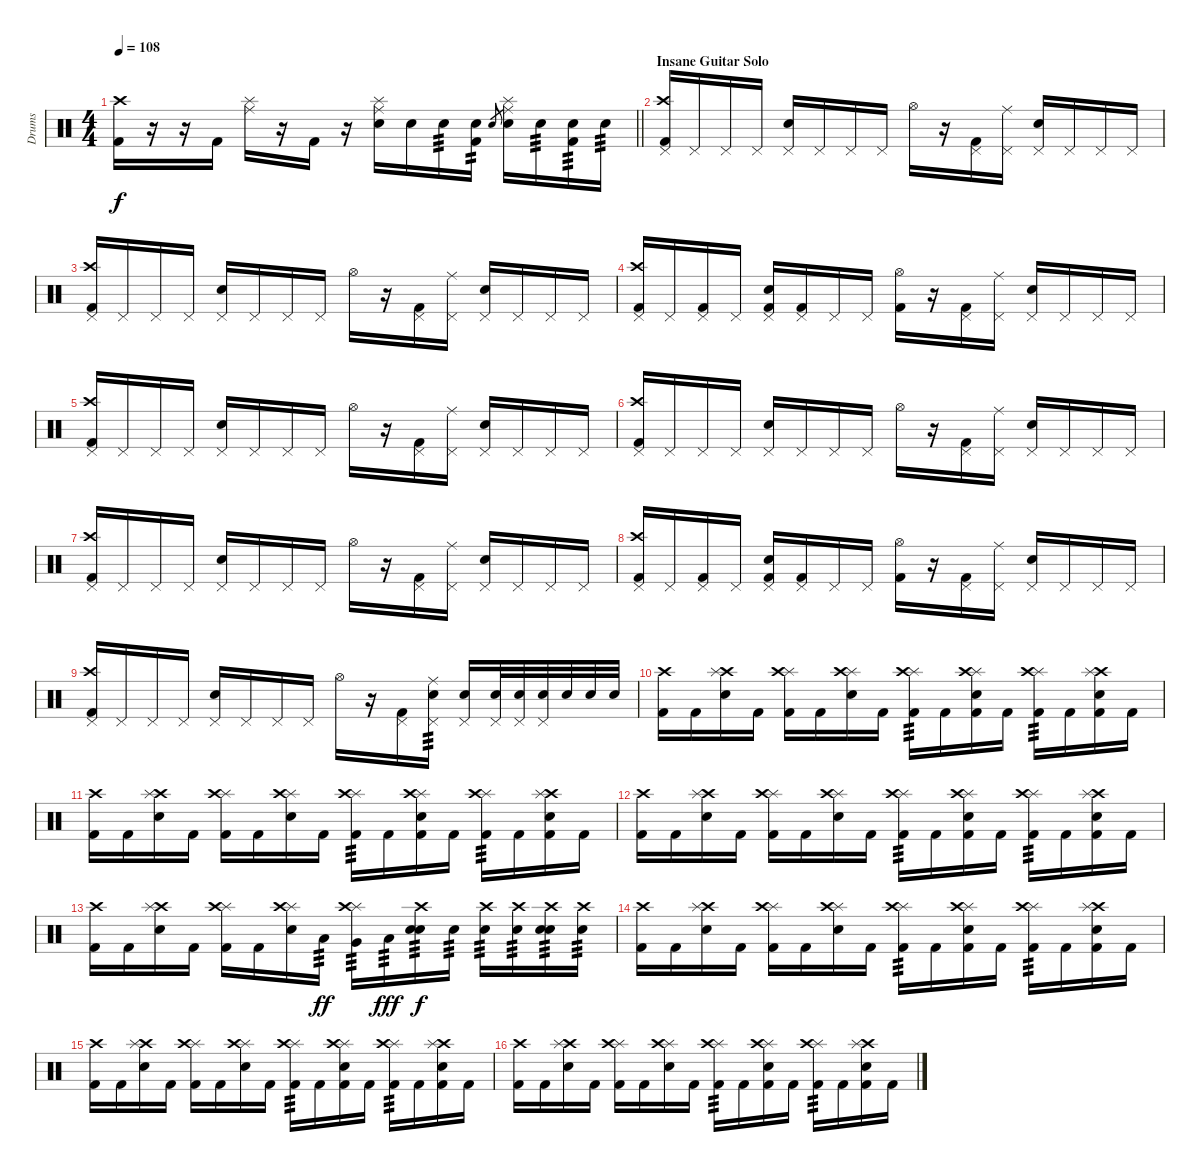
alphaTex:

\track ("Drums" "Drums") {instrument percussion}
\staff {score}
\articulation defaults
\ts (4 4)
\tempo 108
\clef neutral
\barLineRight lightlight
\ks c
("Kick (hit) 2" "Crash high (hit)").16{dy f} r.16 r.16 "Kick (hit) 2".16 ("Splash (hit)" "Ride (middle)").16 r.16 "Kick (hit) 2".16 r.16 ("Electric Snare (hit)" "Splash (hit)" "Ride (middle)").16 "Electric Snare (hit)".16 "Electric Snare (hit)".16{tp 3} ("Electric Snare (hit)" "Kick (hit) 2").16{tp 2} "Electric Snare (hit)".8{gr} ("Electric Snare (hit)" "Splash (hit)" "Ride (middle)").16 "Electric Snare (hit)".16{tp 3} ("Electric Snare (hit)" "Kick (hit) 2").16{tp 3} "Electric Snare (hit)".16{tp 3} |
\section ("" "Insane Guitar Solo")
("Pedal Hi-Hat (hit)" "Crash high (hit)" "Kick (hit) 2").16 "Pedal Hi-Hat (hit)".16 "Pedal Hi-Hat (hit)".16 "Pedal Hi-Hat (hit)".16 ("Pedal Hi-Hat (hit)" "Electric Snare (hit)").16 "Pedal Hi-Hat (hit)".16 "Pedal Hi-Hat (hit)".16 "Pedal Hi-Hat (hit)".16 "Hi-Hat (open)".16 r.16 ("Pedal Hi-Hat (hit)" "Kick (hit) 2").16 ("Ride (middle)" "Pedal Hi-Hat (hit)").16 ("Pedal Hi-Hat (hit)" "Electric Snare (hit)").16 "Pedal Hi-Hat (hit)".16 "Pedal Hi-Hat (hit)".16 "Pedal Hi-Hat (hit)".16 |
("Pedal Hi-Hat (hit)" "Crash high (hit)" "Kick (hit) 2").16 "Pedal Hi-Hat (hit)".16 "Pedal Hi-Hat (hit)".16 "Pedal Hi-Hat (hit)".16 ("Pedal Hi-Hat (hit)" "Electric Snare (hit)").16 "Pedal Hi-Hat (hit)".16 "Pedal Hi-Hat (hit)".16 "Pedal Hi-Hat (hit)".16 "Hi-Hat (open)".16 r.16 ("Pedal Hi-Hat (hit)" "Kick (hit) 2").16 ("Ride (middle)" "Pedal Hi-Hat (hit)").16 ("Pedal Hi-Hat (hit)" "Electric Snare (hit)").16 "Pedal Hi-Hat (hit)".16 "Pedal Hi-Hat (hit)".16 "Pedal Hi-Hat (hit)".16 |
("Pedal Hi-Hat (hit)" "Crash high (hit)" "Kick (hit) 2").16 "Pedal Hi-Hat (hit)".16 ("Pedal Hi-Hat (hit)" "Kick (hit) 2").16 "Pedal Hi-Hat (hit)".16 ("Pedal Hi-Hat (hit)" "Kick (hit) 2" "Electric Snare (hit)").16 ("Pedal Hi-Hat (hit)" "Kick (hit) 2").16 "Pedal Hi-Hat (hit)".16 "Pedal Hi-Hat (hit)".16 ("Hi-Hat (open)" "Kick (hit) 2").16 r.16 ("Pedal Hi-Hat (hit)" "Kick (hit) 2").16 ("Ride (middle)" "Pedal Hi-Hat (hit)").16 ("Pedal Hi-Hat (hit)" "Electric Snare (hit)").16 "Pedal Hi-Hat (hit)".16 "Pedal Hi-Hat (hit)".16 "Pedal Hi-Hat (hit)".16 |
("Pedal Hi-Hat (hit)" "Crash high (hit)" "Kick (hit) 2").16 "Pedal Hi-Hat (hit)".16 "Pedal Hi-Hat (hit)".16 "Pedal Hi-Hat (hit)".16 ("Pedal Hi-Hat (hit)" "Electric Snare (hit)").16 "Pedal Hi-Hat (hit)".16 "Pedal Hi-Hat (hit)".16 "Pedal Hi-Hat (hit)".16 "Hi-Hat (open)".16 r.16 ("Pedal Hi-Hat (hit)" "Kick (hit) 2").16 ("Ride (middle)" "Pedal Hi-Hat (hit)").16 ("Pedal Hi-Hat (hit)" "Electric Snare (hit)").16 "Pedal Hi-Hat (hit)".16 "Pedal Hi-Hat (hit)".16 "Pedal Hi-Hat (hit)".16 |
("Pedal Hi-Hat (hit)" "Crash high (hit)" "Kick (hit) 2").16 "Pedal Hi-Hat (hit)".16 "Pedal Hi-Hat (hit)".16 "Pedal Hi-Hat (hit)".16 ("Pedal Hi-Hat (hit)" "Electric Snare (hit)").16 "Pedal Hi-Hat (hit)".16 "Pedal Hi-Hat (hit)".16 "Pedal Hi-Hat (hit)".16 "Hi-Hat (open)".16 r.16 ("Pedal Hi-Hat (hit)" "Kick (hit) 2").16 ("Ride (middle)" "Pedal Hi-Hat (hit)").16 ("Pedal Hi-Hat (hit)" "Electric Snare (hit)").16 "Pedal Hi-Hat (hit)".16 "Pedal Hi-Hat (hit)".16 "Pedal Hi-Hat (hit)".16 |
("Pedal Hi-Hat (hit)" "Crash high (hit)" "Kick (hit) 2").16 "Pedal Hi-Hat (hit)".16 "Pedal Hi-Hat (hit)".16 "Pedal Hi-Hat (hit)".16 ("Pedal Hi-Hat (hit)" "Electric Snare (hit)").16 "Pedal Hi-Hat (hit)".16 "Pedal Hi-Hat (hit)".16 "Pedal Hi-Hat (hit)".16 "Hi-Hat (open)".16 r.16 ("Pedal Hi-Hat (hit)" "Kick (hit) 2").16 ("Ride (middle)" "Pedal Hi-Hat (hit)").16 ("Pedal Hi-Hat (hit)" "Electric Snare (hit)").16 "Pedal Hi-Hat (hit)".16 "Pedal Hi-Hat (hit)".16 "Pedal Hi-Hat (hit)".16 |
("Pedal Hi-Hat (hit)" "Crash high (hit)" "Kick (hit) 2").16 "Pedal Hi-Hat (hit)".16 ("Pedal Hi-Hat (hit)" "Kick (hit) 2").16 "Pedal Hi-Hat (hit)".16 ("Pedal Hi-Hat (hit)" "Kick (hit) 2" "Electric Snare (hit)").16 ("Pedal Hi-Hat (hit)" "Kick (hit) 2").16 "Pedal Hi-Hat (hit)".16 "Pedal Hi-Hat (hit)".16 ("Hi-Hat (open)" "Kick (hit) 2").16 r.16 ("Pedal Hi-Hat (hit)" "Kick (hit) 2").16 ("Ride (middle)" "Pedal Hi-Hat (hit)").16 ("Pedal Hi-Hat (hit)" "Electric Snare (hit)").16 "Pedal Hi-Hat (hit)".16 "Pedal Hi-Hat (hit)".16 "Pedal Hi-Hat (hit)".16 |
("Pedal Hi-Hat (hit)" "Crash high (hit)" "Kick (hit) 2").16 "Pedal Hi-Hat (hit)".16 "Pedal Hi-Hat (hit)".16 "Pedal Hi-Hat (hit)".16 ("Pedal Hi-Hat (hit)" "Electric Snare (hit)").16 "Pedal Hi-Hat (hit)".16 "Pedal Hi-Hat (hit)".16 "Pedal Hi-Hat (hit)".16 "Hi-Hat (open)".16 r.16 ("Pedal Hi-Hat (hit)" "Kick (hit) 2").16 ("Ride (middle)" "Pedal Hi-Hat (hit)" "Electric Snare (hit)").16{tp 3} ("Pedal Hi-Hat (hit)" "Electric Snare (hit)").16 ("Pedal Hi-Hat (hit)" "Electric Snare (hit)").32 ("Pedal Hi-Hat (hit)" "Electric Snare (hit)").32 ("Pedal Hi-Hat (hit)" "Electric Snare (hit)").32 "Electric Snare (hit)".32 "Electric Snare (hit)".32 "Electric Snare (hit)".32 |
("Crash high (hit)" "Kick (hit) 2").16 "Kick (hit) 2".16 ("Crash high (hit)" "Splash (hit)" "Electric Snare (hit)").16 "Kick (hit) 2".16 ("Splash (hit)" "Crash high (hit)" "Kick (hit) 2").16 "Kick (hit) 2".16 ("Splash (hit)" "Crash high (hit)" "Electric Snare (hit)").16 "Kick (hit) 2".16 ("Splash (hit)" "Crash high (hit)" "Kick (hit) 2").16{tp 3} "Kick (hit) 2".16 ("Splash (hit)" "Crash high (hit)" "Electric Snare (hit)" "Kick (hit) 2").16 "Kick (hit) 2".16 ("Splash (hit)" "Crash high (hit)" "Kick (hit) 2").16{tp 3} "Kick (hit) 2".16 ("Crash high (hit)" "Splash (hit)" "Electric Snare (hit)" "Kick (hit) 2").16 "Kick (hit) 2".16 |
("Crash high (hit)" "Kick (hit) 2").16 "Kick (hit) 2".16 ("Crash high (hit)" "Splash (hit)" "Electric Snare (hit)").16 "Kick (hit) 2".16 ("Splash (hit)" "Crash high (hit)" "Kick (hit) 2").16 "Kick (hit) 2".16 ("Splash (hit)" "Crash high (hit)" "Electric Snare (hit)").16 "Kick (hit) 2".16 ("Splash (hit)" "Crash high (hit)" "Kick (hit) 2").16{tp 3} "Kick (hit) 2".16 ("Splash (hit)" "Crash high (hit)" "Electric Snare (hit)" "Kick (hit) 2").16 "Kick (hit) 2".16 ("Splash (hit)" "Crash high (hit)" "Kick (hit) 2").16{tp 3} "Kick (hit) 2".16 ("Crash high (hit)" "Splash (hit)" "Electric Snare (hit)" "Kick (hit) 2").16 "Kick (hit) 2".16 |
("Crash high (hit)" "Kick (hit) 2").16 "Kick (hit) 2".16 ("Crash high (hit)" "Splash (hit)" "Electric Snare (hit)").16 "Kick (hit) 2".16 ("Splash (hit)" "Crash high (hit)" "Kick (hit) 2").16 "Kick (hit) 2".16 ("Splash (hit)" "Crash high (hit)" "Electric Snare (hit)").16 "Kick (hit) 2".16 ("Splash (hit)" "Crash high (hit)" "Kick (hit) 2").16{tp 3} "Kick (hit) 2".16 ("Splash (hit)" "Crash high (hit)" "Electric Snare (hit)" "Kick (hit) 2").16 "Kick (hit) 2".16 ("Splash (hit)" "Crash high (hit)" "Kick (hit) 2").16{tp 3} "Kick (hit) 2".16 ("Crash high (hit)" "Splash (hit)" "Electric Snare (hit)" "Kick (hit) 2").16 "Kick (hit) 2".16 |
("Crash high (hit)" "Kick (hit) 2").16 "Kick (hit) 2".16 ("Crash high (hit)" "Splash (hit)" "Electric Snare (hit)").16 "Kick (hit) 2".16 ("Splash (hit)" "Crash high (hit)" "Kick (hit) 2").16 "Kick (hit) 2".16 ("Splash (hit)" "Crash high (hit)" "Electric Snare (hit)").16 "Low Floor Tom (hit)".16{tp 3 dy ff} ("Splash (hit)" "Crash high (hit)" "Very Low Tom (hit)").16{tp 3} "Low Tom (hit)".16{tp 3 dy fff} ("Crash high (hit)" "Electric Snare (hit)" "Electric Snare (hit)").16{tp 3 dy f} "Electric Snare (hit)".16{tp 3} ("Crash high (hit)" "Electric Snare (hit)").16{tp 3} ("Crash high (hit)" "Electric Snare (hit)").16{tp 3} ("Crash high (hit)" "Electric Snare (hit)" "Electric Snare (hit)").16{tp 3} ("Crash high (hit)" "Electric Snare (hit)").16{tp 3} |
("Crash high (hit)" "Kick (hit) 2").16 "Kick (hit) 2".16 ("Crash high (hit)" "Splash (hit)" "Electric Snare (hit)").16 "Kick (hit) 2".16 ("Splash (hit)" "Crash high (hit)" "Kick (hit) 2").16 "Kick (hit) 2".16 ("Splash (hit)" "Crash high (hit)" "Electric Snare (hit)").16 "Kick (hit) 2".16 ("Splash (hit)" "Crash high (hit)" "Kick (hit) 2").16{tp 3} "Kick (hit) 2".16 ("Splash (hit)" "Crash high (hit)" "Electric Snare (hit)" "Kick (hit) 2").16 "Kick (hit) 2".16 ("Splash (hit)" "Crash high (hit)" "Kick (hit) 2").16{tp 3} "Kick (hit) 2".16 ("Crash high (hit)" "Splash (hit)" "Electric Snare (hit)" "Kick (hit) 2").16 "Kick (hit) 2".16 |
("Crash high (hit)" "Kick (hit) 2").16 "Kick (hit) 2".16 ("Crash high (hit)" "Splash (hit)" "Electric Snare (hit)").16 "Kick (hit) 2".16 ("Splash (hit)" "Crash high (hit)" "Kick (hit) 2").16 "Kick (hit) 2".16 ("Splash (hit)" "Crash high (hit)" "Electric Snare (hit)").16 "Kick (hit) 2".16 ("Splash (hit)" "Crash high (hit)" "Kick (hit) 2").16{tp 3} "Kick (hit) 2".16 ("Splash (hit)" "Crash high (hit)" "Electric Snare (hit)" "Kick (hit) 2").16 "Kick (hit) 2".16 ("Splash (hit)" "Crash high (hit)" "Kick (hit) 2").16{tp 3} "Kick (hit) 2".16 ("Crash high (hit)" "Splash (hit)" "Electric Snare (hit)" "Kick (hit) 2").16 "Kick (hit) 2".16 |
("Crash high (hit)" "Kick (hit) 2").16 "Kick (hit) 2".16 ("Crash high (hit)" "Splash (hit)" "Electric Snare (hit)").16 "Kick (hit) 2".16 ("Splash (hit)" "Crash high (hit)" "Kick (hit) 2").16 "Kick (hit) 2".16 ("Splash (hit)" "Crash high (hit)" "Electric Snare (hit)").16 "Kick (hit) 2".16 ("Splash (hit)" "Crash high (hit)" "Kick (hit) 2").16{tp 3} "Kick (hit) 2".16 ("Splash (hit)" "Crash high (hit)" "Electric Snare (hit)" "Kick (hit) 2").16 "Kick (hit) 2".16 ("Splash (hit)" "Crash high (hit)" "Kick (hit) 2").16{tp 3} "Kick (hit) 2".16 ("Crash high (hit)" "Splash (hit)" "Electric Snare (hit)" "Kick (hit) 2").16 "Kick (hit) 2".16
